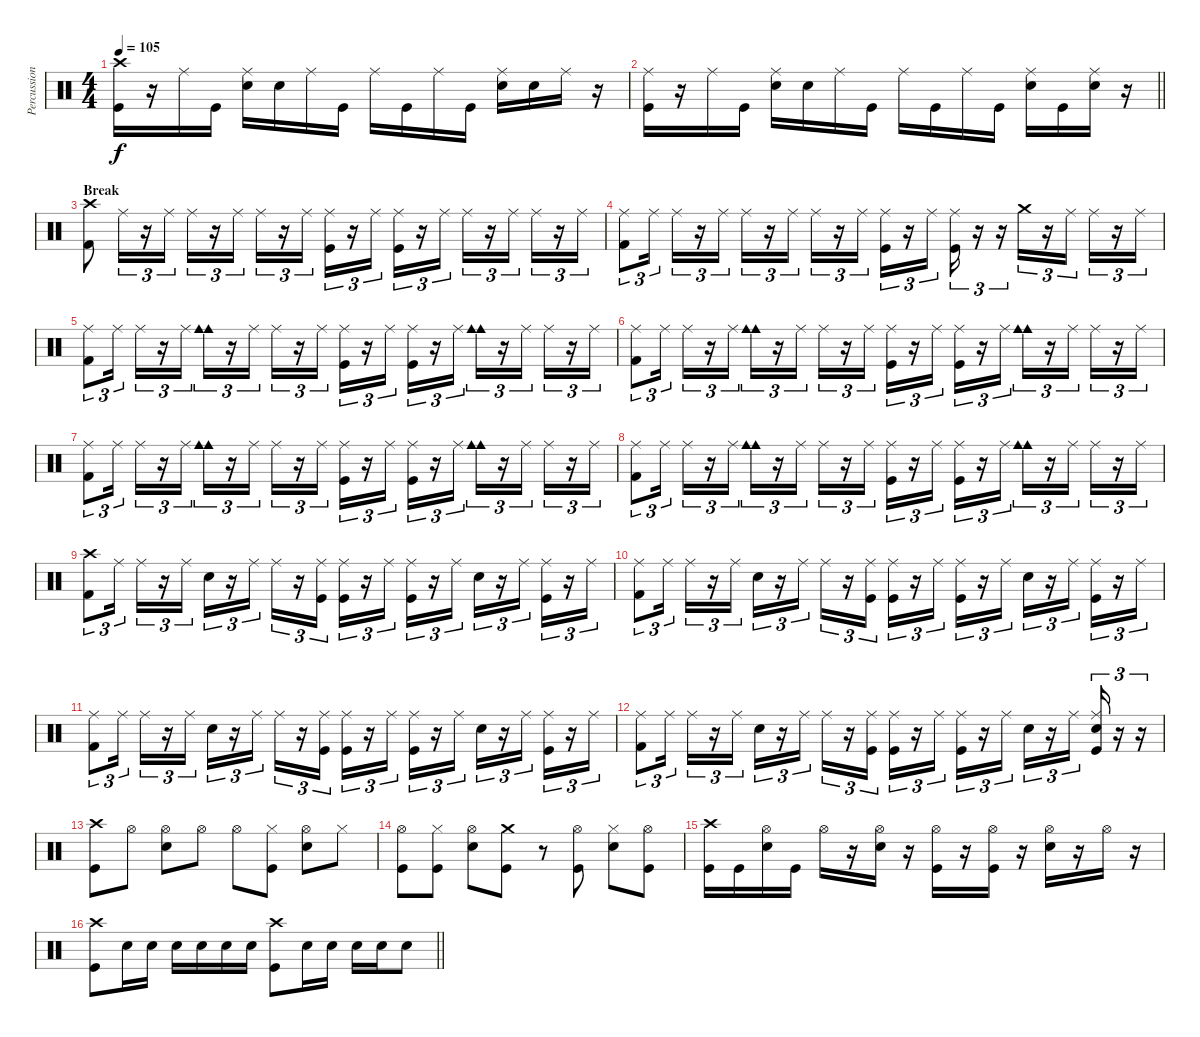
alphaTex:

\track ("Percussions" "Percussion") {instrument percussion}
\staff {score}
\articulation defaults
\ts (4 4)
\tempo 105
\clef neutral
\ks c
("Crash high (hit)" "Kick (hit)").16{dy f} r.16 "Ride (middle)".16 "Kick (hit)".16 ("Ride (middle)" "Snare (hit) 2").16 "Snare (hit) 2".16 "Ride (middle)".16 "Kick (hit)".16 "Ride (middle)".16 "Kick (hit)".16 "Ride (middle)".16 "Kick (hit)".16 ("Ride (middle)" "Snare (hit) 2").16 "Snare (hit) 2".16 "Ride (middle)".16 r.16 |
\barLineRight lightlight
("Ride (middle)" "Kick (hit)").16 r.16 "Ride (middle)".16 "Kick (hit)".16 ("Ride (middle)" "Snare (hit) 2").16 "Snare (hit) 2".16 "Ride (middle)".16 "Kick (hit)".16 "Ride (middle)".16 "Kick (hit)".16 "Ride (middle)".16 "Kick (hit)".16 ("Ride (middle)" "Snare (hit) 2").16 "Kick (hit)".16 ("Ride (middle)" "Snare (hit) 2").16 r.16 |
\section ("" "Break")
("Crash high (hit)" "Kick (hit) 2").8 "Ride (middle)".16{tu (3 2)} r.16{tu (3 2)} "Ride (middle)".16{tu (3 2)} "Ride (middle)".16{tu (3 2)} r.16{tu (3 2)} "Ride (middle)".16{tu (3 2)} "Ride (middle)".16{tu (3 2)} r.16{tu (3 2)} "Ride (middle)".16{tu (3 2)} ("Ride (middle)" "Kick (hit)").16{tu (3 2)} r.16{tu (3 2)} "Ride (middle)".16{tu (3 2)} ("Ride (middle)" "Kick (hit)").16{tu (3 2)} r.16{tu (3 2)} "Ride (middle)".16{tu (3 2)} "Ride (middle)".16{tu (3 2)} r.16{tu (3 2)} "Ride (middle)".16{tu (3 2)} "Ride (middle)".16{tu (3 2)} r.16{tu (3 2)} "Ride (middle)".16{tu (3 2)} |
("Ride (middle)" "Kick (hit) 2").8{tu (3 2)} "Ride (middle)".16{tu (3 2)} "Ride (middle)".16{tu (3 2)} r.16{tu (3 2)} "Ride (middle)".16{tu (3 2)} "Ride (middle)".16{tu (3 2)} r.16{tu (3 2)} "Ride (middle)".16{tu (3 2)} "Ride (middle)".16{tu (3 2)} r.16{tu (3 2)} "Ride (middle)".16{tu (3 2)} ("Ride (middle)" "Kick (hit)").16{tu (3 2)} r.16{tu (3 2)} "Ride (middle)".16{tu (3 2)} ("Ride (middle)" "Kick (hit)").16{tu (3 2)} r.16{tu (3 2)} r.16{tu (3 2)} "Crash medium (hit)".16{tu (3 2)} r.16{tu (3 2)} "Ride (middle)".16{tu (3 2)} "Ride (middle)".16{tu (3 2)} r.16{tu (3 2)} "Ride (middle)".16{tu (3 2)} |
("Ride (middle)" "Kick (hit) 2").8{tu (3 2)} "Ride (middle)".16{tu (3 2)} "Ride (middle)".16{tu (3 2)} r.16{tu (3 2)} "Ride (middle)".16{tu (3 2)} ("Cowbell medium (hit)" "Cowbell medium (hit)").16{tu (3 2)} r.16{tu (3 2)} "Ride (middle)".16{tu (3 2)} "Ride (middle)".16{tu (3 2)} r.16{tu (3 2)} "Ride (middle)".16{tu (3 2)} ("Ride (middle)" "Kick (hit)").16{tu (3 2)} r.16{tu (3 2)} "Ride (middle)".16{tu (3 2)} ("Ride (middle)" "Kick (hit)").16{tu (3 2)} r.16{tu (3 2)} "Ride (middle)".16{tu (3 2)} ("Cowbell medium (hit)" "Cowbell medium (hit)").16{tu (3 2)} r.16{tu (3 2)} "Ride (middle)".16{tu (3 2)} "Ride (middle)".16{tu (3 2)} r.16{tu (3 2)} "Ride (middle)".16{tu (3 2)} |
("Ride (middle)" "Kick (hit) 2").8{tu (3 2)} "Ride (middle)".16{tu (3 2)} "Ride (middle)".16{tu (3 2)} r.16{tu (3 2)} "Ride (middle)".16{tu (3 2)} ("Cowbell medium (hit)" "Cowbell medium (hit)").16{tu (3 2)} r.16{tu (3 2)} "Ride (middle)".16{tu (3 2)} "Ride (middle)".16{tu (3 2)} r.16{tu (3 2)} "Ride (middle)".16{tu (3 2)} ("Ride (middle)" "Kick (hit)").16{tu (3 2)} r.16{tu (3 2)} "Ride (middle)".16{tu (3 2)} ("Ride (middle)" "Kick (hit)").16{tu (3 2)} r.16{tu (3 2)} "Ride (middle)".16{tu (3 2)} ("Cowbell medium (hit)" "Cowbell medium (hit)").16{tu (3 2)} r.16{tu (3 2)} "Ride (middle)".16{tu (3 2)} "Ride (middle)".16{tu (3 2)} r.16{tu (3 2)} "Ride (middle)".16{tu (3 2)} |
("Ride (middle)" "Kick (hit) 2").8{tu (3 2)} "Ride (middle)".16{tu (3 2)} "Ride (middle)".16{tu (3 2)} r.16{tu (3 2)} "Ride (middle)".16{tu (3 2)} ("Cowbell medium (hit)" "Cowbell medium (hit)").16{tu (3 2)} r.16{tu (3 2)} "Ride (middle)".16{tu (3 2)} "Ride (middle)".16{tu (3 2)} r.16{tu (3 2)} "Ride (middle)".16{tu (3 2)} ("Ride (middle)" "Kick (hit)").16{tu (3 2)} r.16{tu (3 2)} "Ride (middle)".16{tu (3 2)} ("Ride (middle)" "Kick (hit)").16{tu (3 2)} r.16{tu (3 2)} "Ride (middle)".16{tu (3 2)} ("Cowbell medium (hit)" "Cowbell medium (hit)").16{tu (3 2)} r.16{tu (3 2)} "Ride (middle)".16{tu (3 2)} "Ride (middle)".16{tu (3 2)} r.16{tu (3 2)} "Ride (middle)".16{tu (3 2)} |
("Ride (middle)" "Kick (hit) 2").8{tu (3 2)} "Ride (middle)".16{tu (3 2)} "Ride (middle)".16{tu (3 2)} r.16{tu (3 2)} "Ride (middle)".16{tu (3 2)} ("Cowbell medium (hit)" "Cowbell medium (hit)").16{tu (3 2)} r.16{tu (3 2)} "Ride (middle)".16{tu (3 2)} "Ride (middle)".16{tu (3 2)} r.16{tu (3 2)} "Ride (middle)".16{tu (3 2)} ("Ride (middle)" "Kick (hit)").16{tu (3 2)} r.16{tu (3 2)} "Ride (middle)".16{tu (3 2)} ("Ride (middle)" "Kick (hit)").16{tu (3 2)} r.16{tu (3 2)} "Ride (middle)".16{tu (3 2)} ("Cowbell medium (hit)" "Cowbell medium (hit)").16{tu (3 2)} r.16{tu (3 2)} "Ride (middle)".16{tu (3 2)} "Ride (middle)".16{tu (3 2)} r.16{tu (3 2)} "Ride (middle)".16{tu (3 2)} |
("Crash high (hit)" "Kick (hit) 2").8{tu (3 2)} "Ride (middle)".16{tu (3 2)} "Ride (middle)".16{tu (3 2)} r.16{tu (3 2)} "Ride (middle)".16{tu (3 2)} "Snare (hit) 2".16{tu (3 2)} r.16{tu (3 2)} "Ride (middle)".16{tu (3 2)} "Ride (middle)".16{tu (3 2)} r.16{tu (3 2)} ("Ride (middle)" "Kick (hit)").16{tu (3 2)} ("Ride (middle)" "Kick (hit)").16{tu (3 2)} r.16{tu (3 2)} "Ride (middle)".16{tu (3 2)} ("Ride (middle)" "Kick (hit)").16{tu (3 2)} r.16{tu (3 2)} "Ride (middle)".16{tu (3 2)} "Snare (hit) 2".16{tu (3 2)} r.16{tu (3 2)} "Ride (middle)".16{tu (3 2)} ("Ride (middle)" "Kick (hit)").16{tu (3 2)} r.16{tu (3 2)} "Ride (middle)".16{tu (3 2)} |
("Ride (middle)" "Kick (hit) 2").8{tu (3 2)} "Ride (middle)".16{tu (3 2)} "Ride (middle)".16{tu (3 2)} r.16{tu (3 2)} "Ride (middle)".16{tu (3 2)} "Snare (hit) 2".16{tu (3 2)} r.16{tu (3 2)} "Ride (middle)".16{tu (3 2)} "Ride (middle)".16{tu (3 2)} r.16{tu (3 2)} ("Ride (middle)" "Kick (hit)").16{tu (3 2)} ("Ride (middle)" "Kick (hit)").16{tu (3 2)} r.16{tu (3 2)} "Ride (middle)".16{tu (3 2)} ("Ride (middle)" "Kick (hit)").16{tu (3 2)} r.16{tu (3 2)} "Ride (middle)".16{tu (3 2)} "Snare (hit) 2".16{tu (3 2)} r.16{tu (3 2)} "Ride (middle)".16{tu (3 2)} ("Ride (middle)" "Kick (hit)").16{tu (3 2)} r.16{tu (3 2)} "Ride (middle)".16{tu (3 2)} |
("Ride (middle)" "Kick (hit) 2").8{tu (3 2)} "Ride (middle)".16{tu (3 2)} "Ride (middle)".16{tu (3 2)} r.16{tu (3 2)} "Ride (middle)".16{tu (3 2)} "Snare (hit) 2".16{tu (3 2)} r.16{tu (3 2)} "Ride (middle)".16{tu (3 2)} "Ride (middle)".16{tu (3 2)} r.16{tu (3 2)} ("Ride (middle)" "Kick (hit)").16{tu (3 2)} ("Ride (middle)" "Kick (hit)").16{tu (3 2)} r.16{tu (3 2)} "Ride (middle)".16{tu (3 2)} ("Ride (middle)" "Kick (hit)").16{tu (3 2)} r.16{tu (3 2)} "Ride (middle)".16{tu (3 2)} "Snare (hit) 2".16{tu (3 2)} r.16{tu (3 2)} "Ride (middle)".16{tu (3 2)} ("Ride (middle)" "Kick (hit)").16{tu (3 2)} r.16{tu (3 2)} "Ride (middle)".16{tu (3 2)} |
("Ride (middle)" "Kick (hit) 2").8{tu (3 2)} "Ride (middle)".16{tu (3 2)} "Ride (middle)".16{tu (3 2)} r.16{tu (3 2)} "Ride (middle)".16{tu (3 2)} "Snare (hit) 2".16{tu (3 2)} r.16{tu (3 2)} "Ride (middle)".16{tu (3 2)} "Ride (middle)".16{tu (3 2)} r.16{tu (3 2)} ("Ride (middle)" "Kick (hit)").16{tu (3 2)} ("Ride (middle)" "Kick (hit)").16{tu (3 2)} r.16{tu (3 2)} "Ride (middle)".16{tu (3 2)} ("Ride (middle)" "Kick (hit)").16{tu (3 2)} r.16{tu (3 2)} "Ride (middle)".16{tu (3 2)} "Snare (hit) 2".16{tu (3 2)} r.16{tu (3 2)} "Ride (middle)".16{tu (3 2)} ("Ride (middle)" "Snare (hit) 2" "Kick (hit)").16{tu (3 2)} r.16{tu (3 2)} r.16{tu (3 2)} |
("Crash high (hit)" "Kick (hit)").8 "Hi-Hat (open)".8 ("Hi-Hat (open)" "Snare (hit) 2").8 "Hi-Hat (open)".8 "Hi-Hat (open)".8 ("Hi-Hat (closed)" "Kick (hit)").8 ("Hi-Hat (open)" "Snare (hit) 2").8 "Hi-Hat (closed)".8 |
("Hi-Hat (open)" "Kick (hit)").8 ("Hi-Hat (closed)" "Kick (hit)").8 ("Hi-Hat (open)" "Snare (hit) 2").8 ("Crash medium (hit)" "Kick (hit)").8 r.8 ("Hi-Hat (open)" "Kick (hit)").8 ("Hi-Hat (closed)" "Snare (hit) 2").8 ("Hi-Hat (open)" "Kick (hit)").8 |
("Crash high (hit)" "Kick (hit)").16 "Kick (hit)".16 ("Hi-Hat (open)" "Snare (hit) 2").16 "Kick (hit)".16 "Hi-Hat (open)".16 r.16 ("Hi-Hat (open)" "Snare (hit) 2").16 r.16 ("Hi-Hat (open)" "Kick (hit)").16 r.16 ("Hi-Hat (open)" "Kick (hit)").16 r.16 ("Hi-Hat (open)" "Snare (hit) 2").16 r.16 "Hi-Hat (open)".16 r.16 |
\barLineRight lightlight
("Crash high (hit)" "Kick (hit)").8 "Snare (hit) 2".16 "Snare (hit) 2".16 "Snare (hit) 2".16 "Snare (hit) 2".16 "Snare (hit) 2".16 "Snare (hit) 2".16 ("Crash high (hit)" "Kick (hit)").8 "Snare (hit) 2".16 "Snare (hit) 2".16 "Snare (hit) 2".16 "Snare (hit) 2".16 "Snare (hit) 2".8
